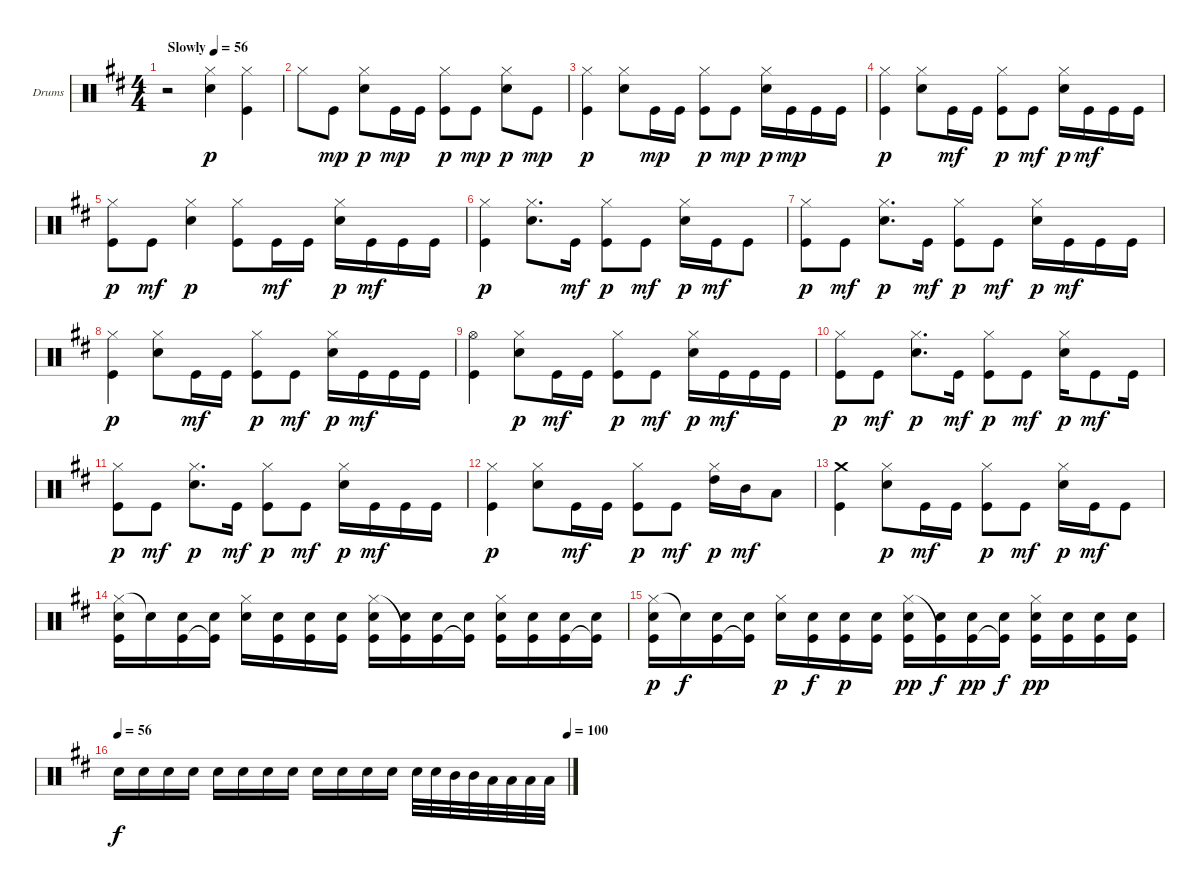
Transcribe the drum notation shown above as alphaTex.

\bracketExtendMode groupsimilarinstruments
\firstSystemTrackNameOrientation horizontal
\otherSystemsTrackNameOrientation horizontal
\track ("Drumkit" "Drums") {instrument percussion}
\staff {score}
\articulation defaults
\ts (4 4)
\tempo (56 "Slowly")
\clef neutral
\scale
1.08071
\ks d
r.2{dy p} ("Hi-Hat (closed)" "Snare (hit) 2").4 ("Hi-Hat (closed)" "Kick (hit)").4 |
\scale
0.919294 "Hi-Hat (closed)".8 "Kick (hit)".8{dy mp} ("Hi-Hat (closed)" "Snare (hit) 2").8{dy p} "Kick (hit)".16{dy mp} "Kick (hit)".16 ("Hi-Hat (closed)" "Kick (hit)").8{dy p} "Kick (hit)".8{dy mp} ("Hi-Hat (closed)" "Snare (hit) 2").8{dy p} "Kick (hit)".8{dy mp} |
\scale
1.05044 ("Hi-Hat (closed)" "Kick (hit)").4{dy p} ("Hi-Hat (closed)" "Snare (hit) 2").8 "Kick (hit)".16{dy mp} "Kick (hit)".16 ("Hi-Hat (closed)" "Kick (hit)").8{dy p} "Kick (hit)".8{dy mp} ("Hi-Hat (closed)" "Snare (hit) 2").16{dy p} "Kick (hit)".16{dy mp} "Kick (hit)".16 "Kick (hit)".16 |
\scale
0.949559 ("Hi-Hat (closed)" "Kick (hit)").4{dy p} ("Hi-Hat (closed)" "Snare (hit) 2").8 "Kick (hit)".16{dy mf} "Kick (hit)".16 ("Hi-Hat (closed)" "Kick (hit)").8{dy p} "Kick (hit)".8{dy mf} ("Hi-Hat (closed)" "Snare (hit) 2").16{dy p} "Kick (hit)".16{dy mf} "Kick (hit)".16 "Kick (hit)".16 |
\scale
1.05044 ("Hi-Hat (closed)" "Kick (hit)").8{dy p} "Kick (hit)".8{dy mf} ("Hi-Hat (closed)" "Snare (hit) 2").4{dy p} ("Hi-Hat (closed)" "Kick (hit)").8 "Kick (hit)".16{dy mf} "Kick (hit)".16 ("Hi-Hat (closed)" "Snare (hit) 2").16{dy p} "Kick (hit)".16{dy mf} "Kick (hit)".16 "Kick (hit)".16 |
\scale
0.949559 ("Hi-Hat (closed)" "Kick (hit)").4{dy p} ("Hi-Hat (closed)" "Snare (hit) 2").8{d} "Kick (hit)".16{dy mf} ("Hi-Hat (closed)" "Kick (hit)").8{dy p} "Kick (hit)".8{dy mf} ("Hi-Hat (closed)" "Snare (hit) 2").16{dy p} "Kick (hit)".16{dy mf} "Kick (hit)".8 |
\scale
1.05044 ("Hi-Hat (closed)" "Kick (hit)").8{dy p} "Kick (hit)".8{dy mf} ("Hi-Hat (closed)" "Snare (hit) 2").8{d dy p} "Kick (hit)".16{dy mf} ("Hi-Hat (closed)" "Kick (hit)").8{dy p} "Kick (hit)".8{dy mf} ("Hi-Hat (closed)" "Snare (hit) 2").16{dy p} "Kick (hit)".16{dy mf} "Kick (hit)".16 "Kick (hit)".16 |
\scale
0.949559 ("Hi-Hat (closed)" "Kick (hit)").4{dy p} ("Hi-Hat (closed)" "Snare (hit) 2").8 "Kick (hit)".16{dy mf} "Kick (hit)".16 ("Hi-Hat (closed)" "Kick (hit)").8{dy p} "Kick (hit)".8{dy mf} ("Hi-Hat (closed)" "Snare (hit) 2").16{dy p} "Kick (hit)".16{dy mf} "Kick (hit)".16 "Kick (hit)".16 |
\scale
1.05044 ("Hi-Hat (open)" "Kick (hit)").4 ("Hi-Hat (closed)" "Snare (hit) 2").8{dy p} "Kick (hit)".16{dy mf} "Kick (hit)".16 ("Hi-Hat (closed)" "Kick (hit)").8{dy p} "Kick (hit)".8{dy mf} ("Hi-Hat (closed)" "Snare (hit) 2").16{dy p} "Kick (hit)".16{dy mf} "Kick (hit)".16 "Kick (hit)".16 |
\scale
0.949559 ("Hi-Hat (closed)" "Kick (hit)").8{dy p} "Kick (hit)".8{dy mf} ("Hi-Hat (closed)" "Snare (hit) 2").8{d dy p} "Kick (hit)".16{dy mf} ("Hi-Hat (closed)" "Kick (hit)").8{dy p} "Kick (hit)".8{dy mf} ("Hi-Hat (closed)" "Snare (hit) 2").16{dy p} "Kick (hit)".8{dy mf} "Kick (hit)".16 |
\scale
1.05044 ("Hi-Hat (closed)" "Kick (hit)").8{dy p} "Kick (hit)".8{dy mf} ("Hi-Hat (closed)" "Snare (hit) 2").8{d dy p} "Kick (hit)".16{dy mf} ("Hi-Hat (closed)" "Kick (hit)").8{dy p} "Kick (hit)".8{dy mf} ("Hi-Hat (closed)" "Snare (hit) 2").16{dy p} "Kick (hit)".16{dy mf} "Kick (hit)".16 "Kick (hit)".16 |
\scale
0.949559 ("Hi-Hat (closed)" "Kick (hit)").4{dy p} ("Hi-Hat (closed)" "Snare (hit) 2").8 "Kick (hit)".16{dy mf} "Kick (hit)".16 ("Hi-Hat (closed)" "Kick (hit)").8{dy p} "Kick (hit)".8{dy mf} ("Hi-Hat (closed)" "High Tom (hit)").16{dy p} "Mid Tom (hit)".16{dy mf} "Low Tom (hit)".8 |
\scale
1.05044 ("Crash medium (hit)" "Kick (hit)").4 ("Hi-Hat (closed)" "Snare (hit) 2").8{dy p} "Kick (hit)".16{dy mf} "Kick (hit)".16 ("Hi-Hat (closed)" "Kick (hit)").8{dy p} "Kick (hit)".8{dy mf} ("Hi-Hat (closed)" "Snare (hit) 2").16{dy p} "Kick (hit)".16{dy mf} "Kick (hit)".8 |
\scale
0.949559 ("Hi-Hat (closed)" "Kick (hit)" "Snare (hit) 2").16 "Snare (hit) 2"{t}.16 ("Kick (hit)" "Snare (hit) 2").16 ("Kick (hit)"{t} "Snare (hit) 2").16 ("Hi-Hat (closed)" "Snare (hit) 2").16 ("Kick (hit)" "Snare (hit) 2").16 ("Kick (hit)" "Snare (hit) 2").16 ("Kick (hit)" "Snare (hit) 2").16 ("Hi-Hat (closed)" "Kick (hit)" "Snare (hit) 2").16 ("Kick (hit)"{t} "Snare (hit) 2").16 ("Kick (hit)" "Snare (hit) 2").16 ("Kick (hit)"{t} "Snare (hit) 2").16 ("Hi-Hat (closed)" "Kick (hit)" "Snare (hit) 2").16 ("Kick (hit)" "Snare (hit) 2").16 ("Kick (hit)" "Snare (hit) 2").16 ("Kick (hit)"{t} "Snare (hit) 2").16 |
\scale
1.05044 ("Hi-Hat (closed)" "Kick (hit)" "Snare (hit) 2").16{dy p} "Snare (hit) 2"{t}.16{dy f} ("Kick (hit)" "Snare (hit) 2").16 ("Kick (hit)"{t} "Snare (hit) 2").16 ("Hi-Hat (closed)" "Snare (hit) 2").16{dy p} ("Kick (hit)" "Snare (hit) 2").16{dy f} ("Kick (hit)" "Snare (hit) 2").16{dy p} ("Kick (hit)" "Snare (hit) 2").16 ("Hi-Hat (closed)" "Kick (hit)" "Snare (hit) 2").16{dy pp} ("Kick (hit)"{t} "Snare (hit) 2").16{dy f} ("Kick (hit)" "Snare (hit) 2").16{dy pp} ("Kick (hit)"{t} "Snare (hit) 2").16{dy f} ("Hi-Hat (closed)" "Kick (hit)" "Snare (hit) 2").16{dy pp} ("Kick (hit)" "Snare (hit) 2").16 ("Kick (hit)" "Snare (hit) 2").16 ("Kick (hit)" "Snare (hit) 2").16 |
\tempo 56
\tempo (100 1)
\scale
0.949559 "Snare (hit) 2".16{dy f} "Snare (hit) 2".16 "Snare (hit) 2".16 "Snare (hit) 2".16 "Snare (hit) 2".16 "Snare (hit) 2".16 "Snare (hit) 2".16 "Snare (hit) 2".16 "Snare (hit) 2".16 "Snare (hit) 2".16 "Snare (hit) 2".16 "Snare (hit) 2".16 "Snare (hit) 2".32 "Snare (hit) 2".32 "Mid Tom (hit)".32 "Mid Tom (hit)".32 "Low Tom (hit)".32 "Low Tom (hit)".32 "Low Tom (hit)".32 "Low Tom (hit)".32
